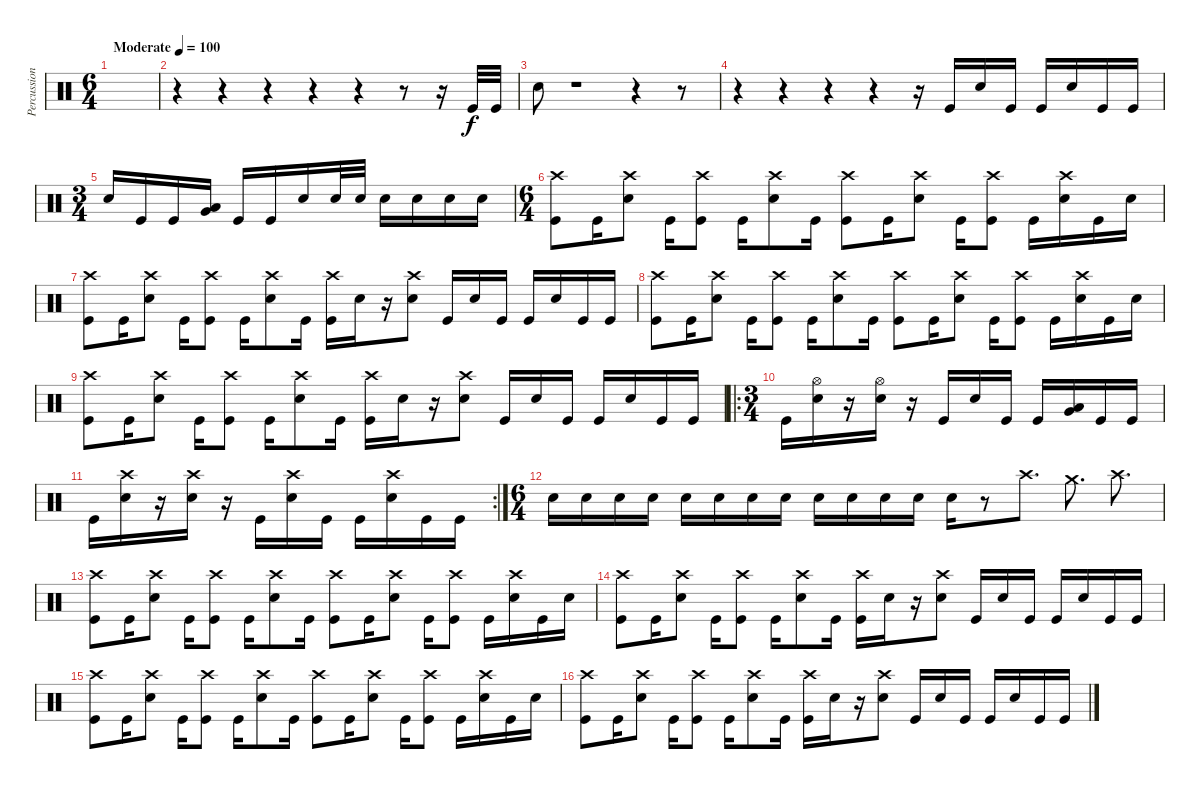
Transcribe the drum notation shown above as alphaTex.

\track ("Percussion" "Percussion") {instrument percussion}
\staff {score}
\articulation defaults
\ts (6 4)
\tempo (100 "Moderate")
\clef neutral
\ks c
|
r.4 r.4 r.4 r.4 r.4 r.8 r.16 "Kick (hit)".32 "Kick (hit)".32 |
"Snare (hit) 2".8 r.1 r.4 r.8 |
r.4 r.4 r.4 r.4 r.16 "Kick (hit)".16 "Snare (hit) 2".16 "Kick (hit)".16 "Kick (hit)".16 "Snare (hit) 2".16 "Kick (hit)".16 "Kick (hit)".16 |
\ts (3 4)
"Snare (hit) 2".16 "Kick (hit)".16 "Kick (hit)".16 ("Very Low Tom (hit)" "Low Floor Tom (hit)").16 "Kick (hit)".16 "Kick (hit)".16 "Snare (hit) 2".16 "Snare (hit) 2".32 "Snare (hit) 2".32 "Snare (hit) 2".16 "Snare (hit) 2".16 "Snare (hit) 2".16 "Snare (hit) 2".16 |
\ts (6 4)
("Crash high (hit)" "Kick (hit)").8 "Kick (hit)".16 ("Crash high (hit)" "Snare (hit) 2").8 "Kick (hit)".16 ("Crash high (hit)" "Kick (hit)").8 "Kick (hit)".16 ("Crash high (hit)" "Snare (hit) 2").8 "Kick (hit)".16 ("Crash high (hit)" "Kick (hit)").8 "Kick (hit)".16 ("Crash high (hit)" "Snare (hit) 2").8 "Kick (hit)".16 ("Crash high (hit)" "Kick (hit)").8 "Kick (hit)".16 ("Crash high (hit)" "Snare (hit) 2").16 "Kick (hit)".16 "Snare (hit) 2".16 |
("Crash high (hit)" "Kick (hit)").8 "Kick (hit)".16 ("Crash high (hit)" "Snare (hit) 2").8 "Kick (hit)".16 ("Crash high (hit)" "Kick (hit)").8 "Kick (hit)".16 ("Crash high (hit)" "Snare (hit) 2").8 "Kick (hit)".16 ("Crash high (hit)" "Kick (hit)").16 "Snare (hit) 2".16 r.16 ("Crash high (hit)" "Snare (hit) 2").8 "Kick (hit)".16 "Snare (hit) 2".16 "Kick (hit)".16 "Kick (hit)".16 "Snare (hit) 2".16 "Kick (hit)".16 "Kick (hit)".16 |
("Crash high (hit)" "Kick (hit)").8 "Kick (hit)".16 ("Crash high (hit)" "Snare (hit) 2").8 "Kick (hit)".16 ("Crash high (hit)" "Kick (hit)").8 "Kick (hit)".16 ("Crash high (hit)" "Snare (hit) 2").8 "Kick (hit)".16 ("Crash high (hit)" "Kick (hit)").8 "Kick (hit)".16 ("Crash high (hit)" "Snare (hit) 2").8 "Kick (hit)".16 ("Crash high (hit)" "Kick (hit)").8 "Kick (hit)".16 ("Crash high (hit)" "Snare (hit) 2").16 "Kick (hit)".16 "Snare (hit) 2".16 |
("Crash high (hit)" "Kick (hit)").8 "Kick (hit)".16 ("Crash high (hit)" "Snare (hit) 2").8 "Kick (hit)".16 ("Crash high (hit)" "Kick (hit)").8 "Kick (hit)".16 ("Crash high (hit)" "Snare (hit) 2").8 "Kick (hit)".16 ("Crash high (hit)" "Kick (hit)").16 "Snare (hit) 2".16 r.16 ("Crash high (hit)" "Snare (hit) 2").8 "Kick (hit)".16 "Snare (hit) 2".16 "Kick (hit)".16 "Kick (hit)".16 "Snare (hit) 2".16 "Kick (hit)".16 "Kick (hit)".16 |
\ro
\ts (3 4)
"Kick (hit)".16 ("Hi-Hat (open)" "Snare (hit) 2").16 r.16{volume 0} ("Hi-Hat (open)" "Snare (hit) 2").16{volume 12} r.16{volume 0} "Kick (hit)".16{volume 12} "Snare (hit) 2".16 "Kick (hit)".16 "Kick (hit)".16 ("Very Low Tom (hit)" "Low Floor Tom (hit)").16 "Kick (hit)".16 "Kick (hit)".16 |
\rc 2 "Kick (hit)".16
("Crash high (hit)" "Snare (hit) 2").16 r.16 ("Crash high (hit)" "Snare (hit) 2").16 r.16 "Kick (hit)".16 ("Crash high (hit)" "Snare (hit) 2").16 "Kick (hit)".16 "Kick (hit)".16 ("Crash high (hit)" "Snare (hit) 2").16 "Kick (hit)".16 "Kick (hit)".16 |
\ts (6 4)
"Snare (hit) 2".16 "Snare (hit) 2".16 "Snare (hit) 2".16 "Snare (hit) 2".16 "Snare (hit) 2".16 "Snare (hit) 2".16 "Snare (hit) 2".16 "Snare (hit) 2".16 "Snare (hit) 2".16 "Snare (hit) 2".16 "Snare (hit) 2".16 "Snare (hit) 2".16 "Snare (hit) 2".16 r.8 "Crash high (hit)".8{d} "Crash medium (hit)".8{d} "Crash high (hit)".8{d} |
("Crash high (hit)" "Kick (hit)").8 "Kick (hit)".16 ("Crash high (hit)" "Snare (hit) 2").8 "Kick (hit)".16 ("Crash high (hit)" "Kick (hit)").8 "Kick (hit)".16 ("Crash high (hit)" "Snare (hit) 2").8 "Kick (hit)".16 ("Crash high (hit)" "Kick (hit)").8 "Kick (hit)".16 ("Crash high (hit)" "Snare (hit) 2").8 "Kick (hit)".16 ("Crash high (hit)" "Kick (hit)").8 "Kick (hit)".16 ("Crash high (hit)" "Snare (hit) 2").16 "Kick (hit)".16 "Snare (hit) 2".16 |
("Crash high (hit)" "Kick (hit)").8 "Kick (hit)".16 ("Crash high (hit)" "Snare (hit) 2").8 "Kick (hit)".16 ("Crash high (hit)" "Kick (hit)").8 "Kick (hit)".16 ("Crash high (hit)" "Snare (hit) 2").8 "Kick (hit)".16 ("Crash high (hit)" "Kick (hit)").16 "Snare (hit) 2".16 r.16 ("Crash high (hit)" "Snare (hit) 2").8 "Kick (hit)".16 "Snare (hit) 2".16 "Kick (hit)".16 "Kick (hit)".16 "Snare (hit) 2".16 "Kick (hit)".16 "Kick (hit)".16 |
("Crash high (hit)" "Kick (hit)").8 "Kick (hit)".16 ("Crash high (hit)" "Snare (hit) 2").8 "Kick (hit)".16 ("Crash high (hit)" "Kick (hit)").8 "Kick (hit)".16 ("Crash high (hit)" "Snare (hit) 2").8 "Kick (hit)".16 ("Crash high (hit)" "Kick (hit)").8 "Kick (hit)".16 ("Crash high (hit)" "Snare (hit) 2").8 "Kick (hit)".16 ("Crash high (hit)" "Kick (hit)").8 "Kick (hit)".16 ("Crash high (hit)" "Snare (hit) 2").16 "Kick (hit)".16 "Snare (hit) 2".16 |
("Crash high (hit)" "Kick (hit)").8 "Kick (hit)".16 ("Crash high (hit)" "Snare (hit) 2").8 "Kick (hit)".16 ("Crash high (hit)" "Kick (hit)").8 "Kick (hit)".16 ("Crash high (hit)" "Snare (hit) 2").8 "Kick (hit)".16 ("Crash high (hit)" "Kick (hit)").16 "Snare (hit) 2".16 r.16 ("Crash high (hit)" "Snare (hit) 2").8 "Kick (hit)".16 "Snare (hit) 2".16 "Kick (hit)".16 "Kick (hit)".16 "Snare (hit) 2".16 "Kick (hit)".16 "Kick (hit)".16
